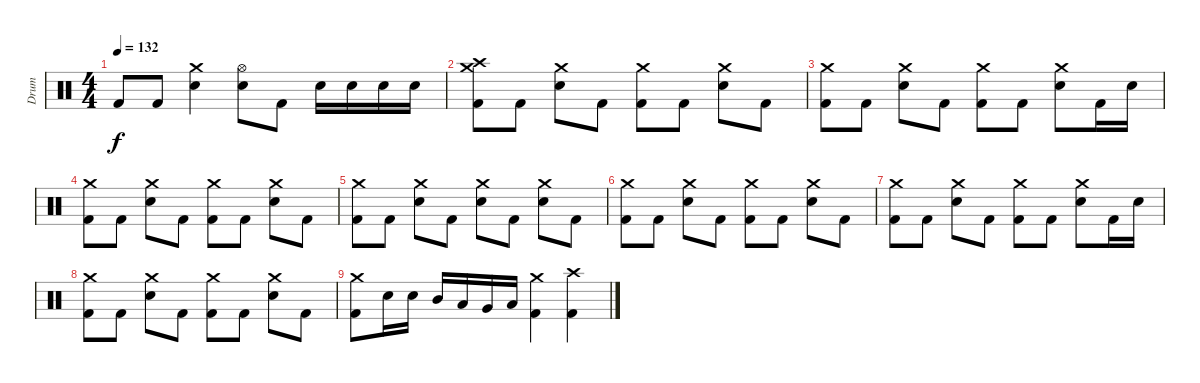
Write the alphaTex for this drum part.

\track ("Drum" "Drum") {instrument percussion}
\staff {score}
\articulation defaults
\ts (4 4)
\tempo 132
\clef neutral
\ks c "Kick (hit) 2".8{dy f} "Kick (hit) 2".8
("Snare (hit) 2" "Crash medium (hit)").4 ("Hi-Hat (open)" "Snare (hit) 2").8 "Kick (hit) 2".8 "Snare (hit) 2".16 "Snare (hit) 2".16 "Snare (hit) 2".16 "Snare (hit) 2".16 |
("Crash medium (hit)" "Kick (hit) 2" "Crash high (hit)").8 "Kick (hit) 2".8 ("Crash medium (hit)" "Snare (hit) 2").8 "Kick (hit) 2".8 ("Crash medium (hit)" "Kick (hit) 2").8 "Kick (hit) 2".8 ("Crash medium (hit)" "Snare (hit) 2").8 "Kick (hit) 2".8 |
("Crash medium (hit)" "Kick (hit) 2").8 "Kick (hit) 2".8 ("Crash medium (hit)" "Snare (hit) 2").8 "Kick (hit) 2".8 ("Crash medium (hit)" "Kick (hit) 2").8 "Kick (hit) 2".8 ("Crash medium (hit)" "Snare (hit) 2").8 "Kick (hit) 2".16 "Snare (hit) 2".16 |
("Crash medium (hit)" "Kick (hit) 2").8 "Kick (hit) 2".8 ("Crash medium (hit)" "Snare (hit) 2").8 "Kick (hit) 2".8 ("Crash medium (hit)" "Kick (hit) 2").8 "Kick (hit) 2".8 ("Crash medium (hit)" "Snare (hit) 2").8 "Kick (hit) 2".8 |
("Crash medium (hit)" "Kick (hit) 2").8 "Kick (hit) 2".8 ("Crash medium (hit)" "Snare (hit) 2").8 "Kick (hit) 2".8 ("Crash medium (hit)" "Snare (hit) 2").8 "Kick (hit) 2".8 ("Crash medium (hit)" "Snare (hit) 2").8 "Kick (hit) 2".8 |
("Crash medium (hit)" "Kick (hit) 2").8 "Kick (hit) 2".8 ("Crash medium (hit)" "Snare (hit) 2").8 "Kick (hit) 2".8 ("Crash medium (hit)" "Kick (hit) 2").8 "Kick (hit) 2".8 ("Crash medium (hit)" "Snare (hit) 2").8 "Kick (hit) 2".8 |
("Crash medium (hit)" "Kick (hit) 2").8 "Kick (hit) 2".8 ("Crash medium (hit)" "Snare (hit) 2").8 "Kick (hit) 2".8 ("Crash medium (hit)" "Kick (hit) 2").8 "Kick (hit) 2".8 ("Crash medium (hit)" "Snare (hit) 2").8 "Kick (hit) 2".16 "Snare (hit) 2".16 |
("Crash medium (hit)" "Kick (hit) 2").8 "Kick (hit) 2".8 ("Crash medium (hit)" "Snare (hit) 2").8 "Kick (hit) 2".8 ("Crash medium (hit)" "Kick (hit) 2").8 "Kick (hit) 2".8 ("Crash medium (hit)" "Snare (hit) 2").8 "Kick (hit) 2".8 |
("Crash medium (hit)" "Kick (hit) 2").8 "Snare (hit) 2".16 "Snare (hit) 2".16 "Mid Tom (hit)".16 "Low Tom (hit)".16 "Very Low Tom (hit)".16 "Low Floor Tom (hit)".16 ("Kick (hit) 2" "Crash medium (hit)").4 ("Kick (hit) 2" "Crash high (hit)").4
